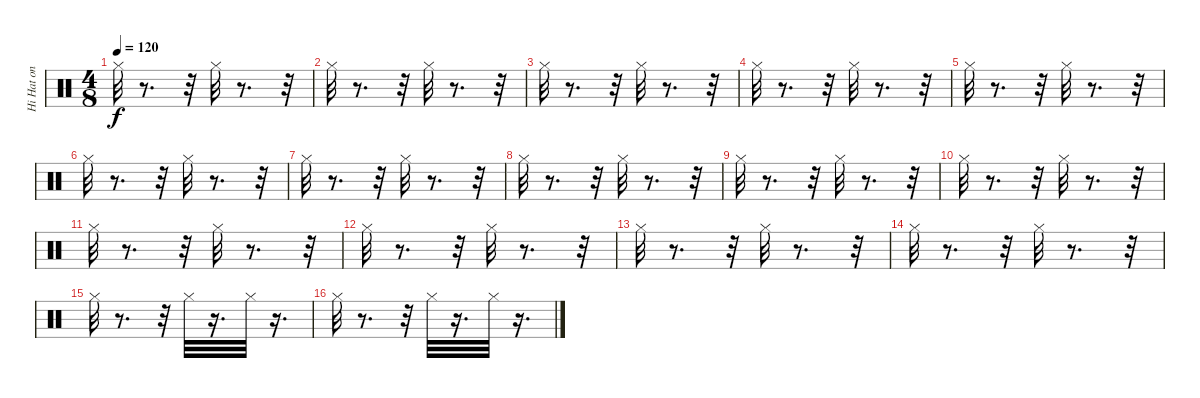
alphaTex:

\track ("Hi Hat on BD" "Hi Hat on ") {instrument percussion}
\staff {score}
\articulation defaults
\ts (4 8)
\tempo 120
\clef neutral
\ks c "Hi-Hat (closed)".32{dy f}
r.8{d} r.32 "Hi-Hat (closed)".32 r.8{d} r.32 |
"Hi-Hat (closed)".32 r.8{d} r.32 "Hi-Hat (closed)".32 r.8{d} r.32 |
"Hi-Hat (closed)".32 r.8{d} r.32 "Hi-Hat (closed)".32 r.8{d} r.32 |
"Hi-Hat (closed)".32 r.8{d} r.32 "Hi-Hat (closed)".32 r.8{d} r.32 |
"Hi-Hat (closed)".32 r.8{d} r.32 "Hi-Hat (closed)".32 r.8{d} r.32 |
"Hi-Hat (closed)".32 r.8{d} r.32 "Hi-Hat (closed)".32 r.8{d} r.32 |
"Hi-Hat (closed)".32 r.8{d} r.32 "Hi-Hat (closed)".32 r.8{d} r.32 |
"Hi-Hat (closed)".32 r.8{d} r.32 "Hi-Hat (closed)".32 r.8{d} r.32 |
"Hi-Hat (closed)".32 r.8{d} r.32 "Hi-Hat (closed)".32 r.8{d} r.32 |
"Hi-Hat (closed)".32 r.8{d} r.32 "Hi-Hat (closed)".32 r.8{d} r.32 |
"Hi-Hat (closed)".32 r.8{d} r.32 "Hi-Hat (closed)".32 r.8{d} r.32 |
"Hi-Hat (closed)".32 r.8{d} r.32 "Hi-Hat (closed)".32 r.8{d} r.32 |
"Hi-Hat (closed)".32 r.8{d} r.32 "Hi-Hat (closed)".32 r.8{d} r.32 |
"Hi-Hat (closed)".32 r.8{d} r.32 "Hi-Hat (closed)".32 r.8{d} r.32 |
"Hi-Hat (closed)".32 r.8{d} r.32 "Hi-Hat (closed)".32 r.16{d} "Hi-Hat (closed)".32 r.16{d} |
"Hi-Hat (closed)".32 r.8{d} r.32 "Hi-Hat (closed)".32 r.16{d} "Hi-Hat (closed)".32 r.16{d}
